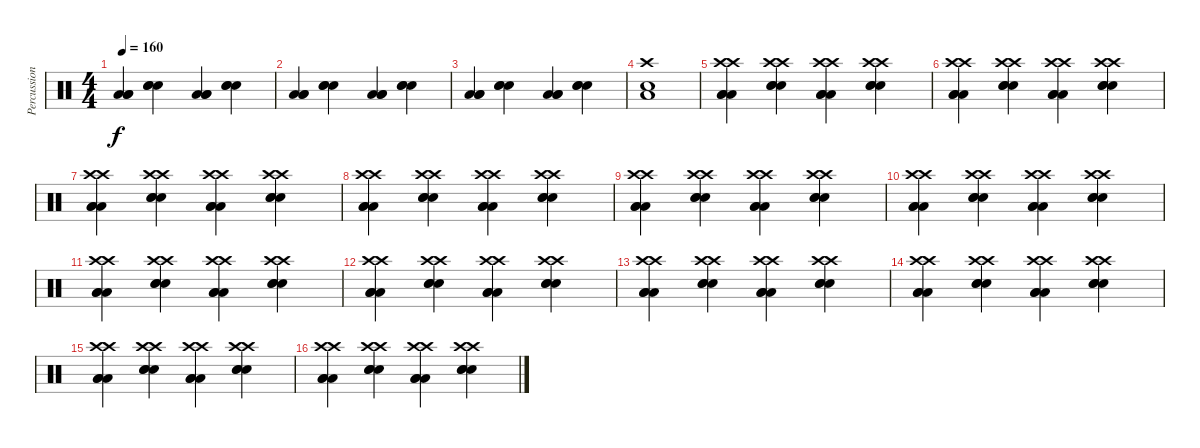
\track ("Percussion" "Percussion") {instrument percussion}
\staff {score}
\articulation defaults
\ts (4 4)
\tempo 160
\clef neutral
\ks c
("Low Tom (hit)" "Low Tom (hit)" "Low Tom (hit)").4{dy f} ("Electric Snare (hit)" "Electric Snare (hit)" "Electric Snare (hit)").4 ("Low Tom (hit)" "Low Tom (hit)" "Low Tom (hit)").4 ("Electric Snare (hit)" "Electric Snare (hit)" "Electric Snare (hit)").4 |
("Low Tom (hit)" "Low Tom (hit)" "Low Tom (hit)").4 ("Electric Snare (hit)" "Electric Snare (hit)" "Electric Snare (hit)").4 ("Low Tom (hit)" "Low Tom (hit)" "Low Tom (hit)").4 ("Electric Snare (hit)" "Electric Snare (hit)" "Electric Snare (hit)").4 |
("Low Tom (hit)" "Low Tom (hit)" "Low Tom (hit)").4 ("Electric Snare (hit)" "Electric Snare (hit)" "Electric Snare (hit)").4 ("Low Tom (hit)" "Low Tom (hit)" "Low Tom (hit)").4 ("Electric Snare (hit)" "Electric Snare (hit)" "Electric Snare (hit)").4 |
("Crash high (hit)" "Low Tom (hit)" "Electric Snare (hit)").1 |
("Low Tom (hit)" "Low Tom (hit)" "Low Tom (hit)" "Crash high (hit)" "Crash high (hit)").4 ("Electric Snare (hit)" "Electric Snare (hit)" "Electric Snare (hit)" "Crash high (hit)" "Crash high (hit)").4 ("Low Tom (hit)" "Low Tom (hit)" "Low Tom (hit)" "Crash high (hit)" "Crash high (hit)").4 ("Electric Snare (hit)" "Electric Snare (hit)" "Electric Snare (hit)" "Crash high (hit)" "Crash high (hit)").4 |
("Low Tom (hit)" "Low Tom (hit)" "Low Tom (hit)" "Crash high (hit)" "Crash high (hit)").4 ("Electric Snare (hit)" "Electric Snare (hit)" "Electric Snare (hit)" "Crash high (hit)" "Crash high (hit)").4 ("Low Tom (hit)" "Low Tom (hit)" "Low Tom (hit)" "Crash high (hit)" "Crash high (hit)").4 ("Electric Snare (hit)" "Electric Snare (hit)" "Electric Snare (hit)" "Crash high (hit)" "Crash high (hit)").4 |
("Low Tom (hit)" "Low Tom (hit)" "Low Tom (hit)" "Crash high (hit)" "Crash high (hit)").4 ("Electric Snare (hit)" "Electric Snare (hit)" "Electric Snare (hit)" "Crash high (hit)" "Crash high (hit)").4 ("Low Tom (hit)" "Low Tom (hit)" "Low Tom (hit)" "Crash high (hit)" "Crash high (hit)").4 ("Electric Snare (hit)" "Electric Snare (hit)" "Electric Snare (hit)" "Crash high (hit)" "Crash high (hit)").4 |
("Low Tom (hit)" "Low Tom (hit)" "Low Tom (hit)" "Crash high (hit)" "Crash high (hit)").4 ("Electric Snare (hit)" "Electric Snare (hit)" "Electric Snare (hit)" "Crash high (hit)" "Crash high (hit)").4 ("Low Tom (hit)" "Low Tom (hit)" "Low Tom (hit)" "Crash high (hit)" "Crash high (hit)").4 ("Electric Snare (hit)" "Electric Snare (hit)" "Electric Snare (hit)" "Crash high (hit)" "Crash high (hit)").4 |
("Low Tom (hit)" "Low Tom (hit)" "Low Tom (hit)" "Crash high (hit)" "Crash high (hit)").4 ("Electric Snare (hit)" "Electric Snare (hit)" "Electric Snare (hit)" "Crash high (hit)" "Crash high (hit)").4 ("Low Tom (hit)" "Low Tom (hit)" "Low Tom (hit)" "Crash high (hit)" "Crash high (hit)").4 ("Electric Snare (hit)" "Electric Snare (hit)" "Electric Snare (hit)" "Crash high (hit)" "Crash high (hit)").4 |
("Low Tom (hit)" "Low Tom (hit)" "Low Tom (hit)" "Crash high (hit)" "Crash high (hit)").4 ("Electric Snare (hit)" "Electric Snare (hit)" "Electric Snare (hit)" "Crash high (hit)" "Crash high (hit)").4 ("Low Tom (hit)" "Low Tom (hit)" "Low Tom (hit)" "Crash high (hit)" "Crash high (hit)").4 ("Electric Snare (hit)" "Electric Snare (hit)" "Electric Snare (hit)" "Crash high (hit)" "Crash high (hit)").4 |
("Low Tom (hit)" "Low Tom (hit)" "Low Tom (hit)" "Crash high (hit)" "Crash high (hit)").4 ("Electric Snare (hit)" "Electric Snare (hit)" "Electric Snare (hit)" "Crash high (hit)" "Crash high (hit)").4 ("Low Tom (hit)" "Low Tom (hit)" "Low Tom (hit)" "Crash high (hit)" "Crash high (hit)").4 ("Electric Snare (hit)" "Electric Snare (hit)" "Electric Snare (hit)" "Crash high (hit)" "Crash high (hit)").4 |
("Low Tom (hit)" "Low Tom (hit)" "Low Tom (hit)" "Crash high (hit)" "Crash high (hit)").4 ("Electric Snare (hit)" "Electric Snare (hit)" "Electric Snare (hit)" "Crash high (hit)" "Crash high (hit)").4 ("Low Tom (hit)" "Low Tom (hit)" "Low Tom (hit)" "Crash high (hit)" "Crash high (hit)").4 ("Electric Snare (hit)" "Electric Snare (hit)" "Electric Snare (hit)" "Crash high (hit)" "Crash high (hit)").4 |
("Low Tom (hit)" "Low Tom (hit)" "Low Tom (hit)" "Crash high (hit)" "Crash high (hit)").4 ("Electric Snare (hit)" "Electric Snare (hit)" "Electric Snare (hit)" "Crash high (hit)" "Crash high (hit)").4 ("Low Tom (hit)" "Low Tom (hit)" "Low Tom (hit)" "Crash high (hit)" "Crash high (hit)").4 ("Electric Snare (hit)" "Electric Snare (hit)" "Electric Snare (hit)" "Crash high (hit)" "Crash high (hit)").4 |
("Low Tom (hit)" "Low Tom (hit)" "Low Tom (hit)" "Crash high (hit)" "Crash high (hit)").4 ("Electric Snare (hit)" "Electric Snare (hit)" "Electric Snare (hit)" "Crash high (hit)" "Crash high (hit)").4 ("Low Tom (hit)" "Low Tom (hit)" "Low Tom (hit)" "Crash high (hit)" "Crash high (hit)").4 ("Electric Snare (hit)" "Electric Snare (hit)" "Electric Snare (hit)" "Crash high (hit)" "Crash high (hit)").4 |
("Low Tom (hit)" "Low Tom (hit)" "Low Tom (hit)" "Crash high (hit)" "Crash high (hit)").4 ("Electric Snare (hit)" "Electric Snare (hit)" "Electric Snare (hit)" "Crash high (hit)" "Crash high (hit)").4 ("Low Tom (hit)" "Low Tom (hit)" "Low Tom (hit)" "Crash high (hit)" "Crash high (hit)").4 ("Electric Snare (hit)" "Electric Snare (hit)" "Electric Snare (hit)" "Crash high (hit)" "Crash high (hit)").4 |
("Low Tom (hit)" "Low Tom (hit)" "Low Tom (hit)" "Crash high (hit)" "Crash high (hit)").4 ("Electric Snare (hit)" "Electric Snare (hit)" "Electric Snare (hit)" "Crash high (hit)" "Crash high (hit)").4 ("Low Tom (hit)" "Low Tom (hit)" "Low Tom (hit)" "Crash high (hit)" "Crash high (hit)").4 ("Electric Snare (hit)" "Electric Snare (hit)" "Electric Snare (hit)" "Crash high (hit)" "Crash high (hit)").4
